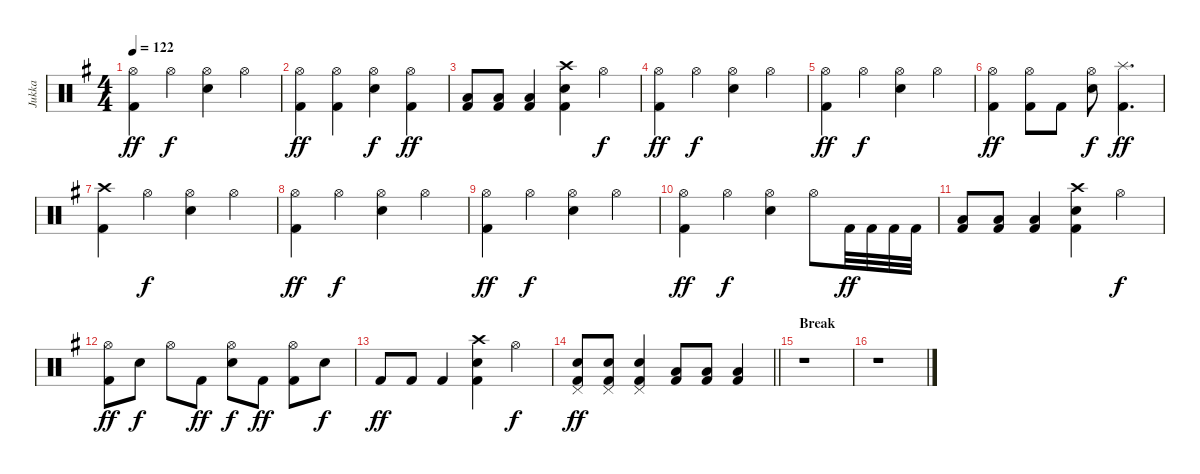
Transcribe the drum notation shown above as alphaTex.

\track ("Jukka" "Jukka") {instrument percussion}
\staff {score}
\articulation defaults
\ts (4 4)
\tempo 122
\clef neutral
\ks g
("Hi-Hat (open)" "Kick (hit) 2").4{dy ff} "Hi-Hat (open)".4{dy f} ("Hi-Hat (open)" "Electric Snare (hit)").4 "Hi-Hat (open)".4 |
("Hi-Hat (open)" "Kick (hit) 2").4{dy ff} ("Hi-Hat (open)" "Kick (hit) 2").4 ("Hi-Hat (open)" "Electric Snare (hit)").4{dy f} ("Hi-Hat (open)" "Kick (hit) 2").4{dy ff} |
("Low Floor Tom (hit)" "Kick (hit) 2").8 ("Low Floor Tom (hit)" "Kick (hit) 2").8 ("Low Floor Tom (hit)" "Kick (hit) 2").4 ("Crash high (hit)" "Electric Snare (hit)" "Kick (hit) 2").4 "Hi-Hat (open)".4{dy f} |
("Hi-Hat (open)" "Kick (hit) 2").4{dy ff} "Hi-Hat (open)".4{dy f} ("Hi-Hat (open)" "Electric Snare (hit)").4 "Hi-Hat (open)".4 |
("Hi-Hat (open)" "Kick (hit) 2").4{dy ff} "Hi-Hat (open)".4{dy f} ("Hi-Hat (open)" "Electric Snare (hit)").4 "Hi-Hat (open)".4 |
("Hi-Hat (open)" "Kick (hit) 2").4{dy ff} ("Hi-Hat (open)" "Kick (hit) 2").8 "Kick (hit) 2".8 ("Hi-Hat (open)" "Electric Snare (hit)").8{dy f} ("Splash (hit)" "Kick (hit) 2").4{d dy ff} |
("Crash high (hit)" "Kick (hit) 2").4 "Hi-Hat (open)".4{dy f} ("Hi-Hat (open)" "Electric Snare (hit)").4 "Hi-Hat (open)".4 |
("Hi-Hat (open)" "Kick (hit) 2").4{dy ff} "Hi-Hat (open)".4{dy f} ("Hi-Hat (open)" "Electric Snare (hit)").4 "Hi-Hat (open)".4 |
("Hi-Hat (open)" "Kick (hit) 2").4{dy ff} "Hi-Hat (open)".4{dy f} ("Hi-Hat (open)" "Electric Snare (hit)").4 "Hi-Hat (open)".4 |
("Hi-Hat (open)" "Kick (hit) 2").4{dy ff} "Hi-Hat (open)".4{dy f} ("Hi-Hat (open)" "Electric Snare (hit)").4 "Hi-Hat (open)".8 "Kick (hit) 2".32{dy ff} "Kick (hit) 2".32 "Kick (hit) 2".32 "Kick (hit) 2".32 |
("Low Floor Tom (hit)" "Kick (hit) 2").8 ("Low Floor Tom (hit)" "Kick (hit) 2").8 ("Low Floor Tom (hit)" "Kick (hit) 2").4 ("Crash high (hit)" "Electric Snare (hit)" "Kick (hit) 2").4 "Hi-Hat (open)".4{dy f} |
("Hi-Hat (open)" "Kick (hit) 2").8{dy ff} "Electric Snare (hit)".8{dy f} "Hi-Hat (open)".8 "Kick (hit) 2".8{dy ff} ("Hi-Hat (open)" "Electric Snare (hit)").8{dy f} "Kick (hit) 2".8{dy ff} ("Hi-Hat (open)" "Kick (hit) 2").8 "Electric Snare (hit)".8{dy f} |
"Kick (hit) 2".8{dy ff} "Kick (hit) 2".8 "Kick (hit) 2".4 ("Crash high (hit)" "Electric Snare (hit)" "Kick (hit) 2").4 "Hi-Hat (open)".4{dy f} |
\barLineRight lightlight
("Pedal Hi-Hat (hit)" "Electric Snare (hit)" "Kick (hit) 2").8{dy ff} ("Pedal Hi-Hat (hit)" "Electric Snare (hit)" "Kick (hit) 2").8 ("Pedal Hi-Hat (hit)" "Electric Snare (hit)" "Kick (hit) 2").4 ("Low Floor Tom (hit)" "Kick (hit) 2").8 ("Low Floor Tom (hit)" "Kick (hit) 2").8 ("Low Floor Tom (hit)" "Kick (hit) 2").4 |
\section ("" "Break")
r.1 |
r.1
